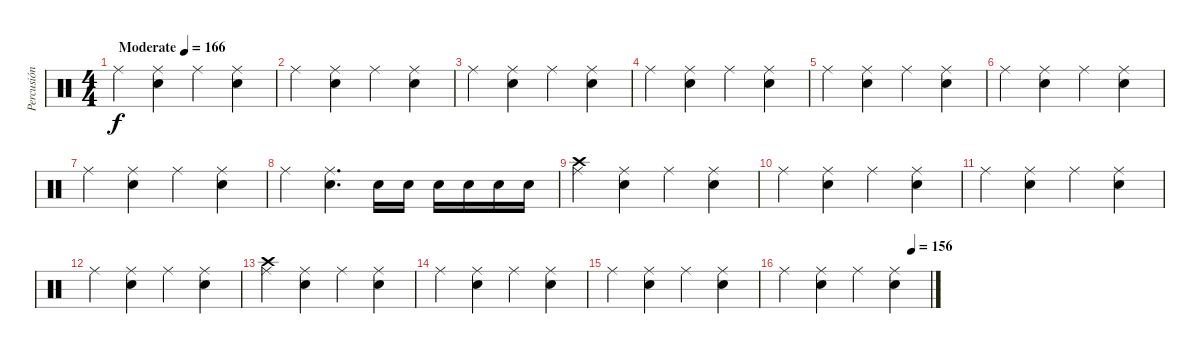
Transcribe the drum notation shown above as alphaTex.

\track ("Percusión" "Percusión") {instrument percussion}
\staff {score}
\articulation defaults
\ts (4 4)
\tempo (166 "Moderate")
\clef neutral
\ks c "Ride (middle)".4{dy f}
("Ride (middle)" "Snare (hit) 2").4 "Ride (middle)".4 ("Ride (middle)" "Snare (hit) 2").4 |
"Ride (middle)".4 ("Ride (middle)" "Snare (hit) 2").4 "Ride (middle)".4 ("Ride (middle)" "Snare (hit) 2").4 |
"Ride (middle)".4 ("Ride (middle)" "Snare (hit) 2").4 "Ride (middle)".4 ("Ride (middle)" "Snare (hit) 2").4 |
"Ride (middle)".4 ("Ride (middle)" "Snare (hit) 2").4 "Ride (middle)".4 ("Ride (middle)" "Snare (hit) 2").4 |
"Ride (middle)".4 ("Ride (middle)" "Snare (hit) 2").4 "Ride (middle)".4 ("Ride (middle)" "Snare (hit) 2").4 |
"Ride (middle)".4 ("Ride (middle)" "Snare (hit) 2").4 "Ride (middle)".4 ("Ride (middle)" "Snare (hit) 2").4 |
"Ride (middle)".4 ("Ride (middle)" "Snare (hit) 2").4 "Ride (middle)".4 ("Ride (middle)" "Snare (hit) 2").4 |
"Ride (middle)".4 ("Ride (middle)" "Snare (hit) 2").4{d} "Snare (hit) 2".16 "Snare (hit) 2".16 "Snare (hit) 2".16 "Snare (hit) 2".16 "Snare (hit) 2".16 "Snare (hit) 2".16 |
("Ride (middle)" "Crash high (hit)").4 ("Ride (middle)" "Snare (hit) 2").4 "Ride (middle)".4 ("Ride (middle)" "Snare (hit) 2").4 |
"Ride (middle)".4 ("Ride (middle)" "Snare (hit) 2").4 "Ride (middle)".4 ("Ride (middle)" "Snare (hit) 2").4 |
"Ride (middle)".4 ("Ride (middle)" "Snare (hit) 2").4 "Ride (middle)".4 ("Ride (middle)" "Snare (hit) 2").4 |
"Ride (middle)".4 ("Ride (middle)" "Snare (hit) 2").4 "Ride (middle)".4 ("Ride (middle)" "Snare (hit) 2").4 |
("Ride (middle)" "Crash high (hit)").4 ("Ride (middle)" "Snare (hit) 2").4 "Ride (middle)".4 ("Ride (middle)" "Snare (hit) 2").4 |
"Ride (middle)".4 ("Ride (middle)" "Snare (hit) 2").4 "Ride (middle)".4 ("Ride (middle)" "Snare (hit) 2").4 |
"Ride (middle)".4 ("Ride (middle)" "Snare (hit) 2").4 "Ride (middle)".4 ("Ride (middle)" "Snare (hit) 2").4 |
\tempo (156 0.875)
"Ride (middle)".4 ("Ride (middle)" "Snare (hit) 2").4 "Ride (middle)".4 ("Ride (middle)" "Snare (hit) 2").4
